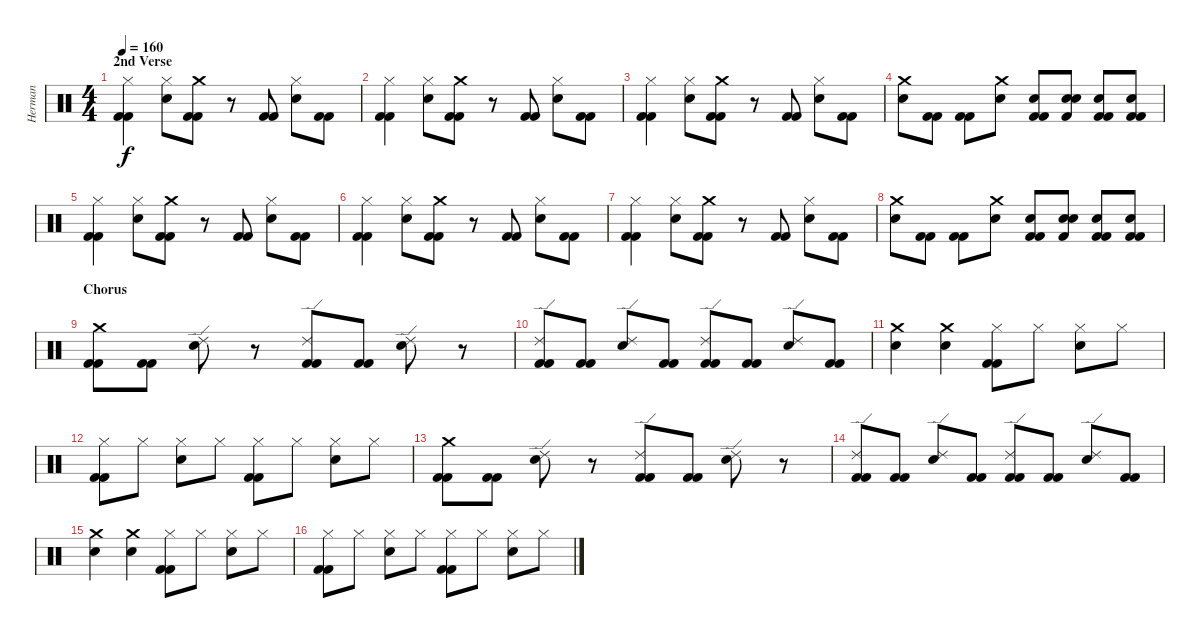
\track ("Herman" "Herman") {instrument percussion}
\staff {score}
\articulation defaults
\ts (4 4)
\section ("" "2nd Verse")
\tempo 160
\clef neutral
\ks c
("Hi-Hat (closed)" "Kick (hit) 2" "Kick (hit) 2").4{dy f} ("Electric Snare (hit)" "Hi-Hat (closed)").8 ("Crash medium (hit)" "Kick (hit) 2" "Kick (hit) 2").8 r.8 ("Kick (hit) 2" "Kick (hit) 2").8 ("Hi-Hat (closed)" "Electric Snare (hit)").8 ("Kick (hit) 2" "Kick (hit) 2").8 |
("Hi-Hat (closed)" "Kick (hit) 2" "Kick (hit) 2").4 ("Electric Snare (hit)" "Hi-Hat (closed)").8 ("Crash medium (hit)" "Kick (hit) 2" "Kick (hit) 2").8 r.8 ("Kick (hit) 2" "Kick (hit) 2").8 ("Hi-Hat (closed)" "Electric Snare (hit)").8 ("Kick (hit) 2" "Kick (hit) 2").8 |
("Hi-Hat (closed)" "Kick (hit) 2" "Kick (hit) 2").4 ("Electric Snare (hit)" "Hi-Hat (closed)").8 ("Crash medium (hit)" "Kick (hit) 2" "Kick (hit) 2").8 r.8 ("Kick (hit) 2" "Kick (hit) 2").8 ("Hi-Hat (closed)" "Electric Snare (hit)").8 ("Kick (hit) 2" "Kick (hit) 2").8 |
("Crash medium (hit)" "Electric Snare (hit)").8 ("Kick (hit) 2" "Kick (hit) 2").8 ("Kick (hit) 2" "Kick (hit) 2").8 ("Crash medium (hit)" "Electric Snare (hit)").8 ("Kick (hit) 2" "Electric Snare (hit)" "Kick (hit) 2").8 ("Electric Snare (hit)" "Electric Snare (hit)" "Kick (hit) 2").8 ("Kick (hit) 2" "Kick (hit) 2" "Electric Snare (hit)").8 ("Electric Snare (hit)" "Kick (hit) 2" "Kick (hit) 2").8 |
("Hi-Hat (closed)" "Kick (hit) 2" "Kick (hit) 2").4 ("Electric Snare (hit)" "Hi-Hat (closed)").8 ("Crash medium (hit)" "Kick (hit) 2" "Kick (hit) 2").8 r.8 ("Kick (hit) 2" "Kick (hit) 2").8 ("Hi-Hat (closed)" "Electric Snare (hit)").8 ("Kick (hit) 2" "Kick (hit) 2").8 |
("Hi-Hat (closed)" "Kick (hit) 2" "Kick (hit) 2").4 ("Electric Snare (hit)" "Hi-Hat (closed)").8 ("Crash medium (hit)" "Kick (hit) 2" "Kick (hit) 2").8 r.8 ("Kick (hit) 2" "Kick (hit) 2").8 ("Hi-Hat (closed)" "Electric Snare (hit)").8 ("Kick (hit) 2" "Kick (hit) 2").8 |
("Hi-Hat (closed)" "Kick (hit) 2" "Kick (hit) 2").4 ("Electric Snare (hit)" "Hi-Hat (closed)").8 ("Crash medium (hit)" "Kick (hit) 2" "Kick (hit) 2").8 r.8 ("Kick (hit) 2" "Kick (hit) 2").8 ("Hi-Hat (closed)" "Electric Snare (hit)").8 ("Kick (hit) 2" "Kick (hit) 2").8 |
("Crash medium (hit)" "Electric Snare (hit)").8 ("Kick (hit) 2" "Kick (hit) 2").8 ("Kick (hit) 2" "Kick (hit) 2").8 ("Crash medium (hit)" "Electric Snare (hit)").8 ("Kick (hit) 2" "Electric Snare (hit)" "Kick (hit) 2").8 ("Electric Snare (hit)" "Electric Snare (hit)" "Kick (hit) 2").8 ("Kick (hit) 2" "Kick (hit) 2" "Electric Snare (hit)").8 ("Electric Snare (hit)" "Kick (hit) 2" "Kick (hit) 2").8 |
\section ("" "Chorus")
("Crash medium (hit)" "Kick (hit) 2" "Kick (hit) 2").8 ("Kick (hit) 2" "Kick (hit) 2").8 ("Electric Snare (hit)" "Ride (edge) 2").8 r.8 ("Ride (edge) 2" "Kick (hit) 2" "Kick (hit) 2").8 ("Kick (hit) 2" "Kick (hit) 2").8 ("Electric Snare (hit)" "Ride (edge) 2").8 r.8 |
("Kick (hit) 2" "Kick (hit) 2" "Ride (edge) 2").8 ("Kick (hit) 2" "Kick (hit) 2").8 ("Electric Snare (hit)" "Ride (edge) 2").8 ("Kick (hit) 2" "Kick (hit) 2").8 ("Kick (hit) 2" "Kick (hit) 2" "Ride (edge) 2").8 ("Kick (hit) 2" "Kick (hit) 2").8 ("Electric Snare (hit)" "Ride (edge) 2").8 ("Kick (hit) 2" "Kick (hit) 2").8 |
("Crash medium (hit)" "Electric Snare (hit)").4 ("Crash medium (hit)" "Electric Snare (hit)").4 ("Hi-Hat (closed)" "Kick (hit) 2" "Kick (hit) 2").8 "Hi-Hat (closed)".8 ("Electric Snare (hit)" "Hi-Hat (closed)").8 "Hi-Hat (closed)".8 |
("Kick (hit) 2" "Kick (hit) 2" "Hi-Hat (closed)").8 "Hi-Hat (closed)".8 ("Hi-Hat (closed)" "Electric Snare (hit)").8 "Hi-Hat (closed)".8 ("Hi-Hat (closed)" "Kick (hit) 2" "Kick (hit) 2").8 "Hi-Hat (closed)".8 ("Electric Snare (hit)" "Hi-Hat (closed)").8 "Hi-Hat (closed)".8 |
("Crash medium (hit)" "Kick (hit) 2" "Kick (hit) 2").8 ("Kick (hit) 2" "Kick (hit) 2").8 ("Electric Snare (hit)" "Ride (edge) 2").8 r.8 ("Ride (edge) 2" "Kick (hit) 2" "Kick (hit) 2").8 ("Kick (hit) 2" "Kick (hit) 2").8 ("Electric Snare (hit)" "Ride (edge) 2").8 r.8 |
("Kick (hit) 2" "Kick (hit) 2" "Ride (edge) 2").8 ("Kick (hit) 2" "Kick (hit) 2").8 ("Electric Snare (hit)" "Ride (edge) 2").8 ("Kick (hit) 2" "Kick (hit) 2").8 ("Kick (hit) 2" "Kick (hit) 2" "Ride (edge) 2").8 ("Kick (hit) 2" "Kick (hit) 2").8 ("Electric Snare (hit)" "Ride (edge) 2").8 ("Kick (hit) 2" "Kick (hit) 2").8 |
("Crash medium (hit)" "Electric Snare (hit)").4 ("Crash medium (hit)" "Electric Snare (hit)").4 ("Hi-Hat (closed)" "Kick (hit) 2" "Kick (hit) 2").8 "Hi-Hat (closed)".8 ("Electric Snare (hit)" "Hi-Hat (closed)").8 "Hi-Hat (closed)".8 |
("Kick (hit) 2" "Kick (hit) 2" "Hi-Hat (closed)").8 "Hi-Hat (closed)".8 ("Hi-Hat (closed)" "Electric Snare (hit)").8 "Hi-Hat (closed)".8 ("Hi-Hat (closed)" "Kick (hit) 2" "Kick (hit) 2").8 "Hi-Hat (closed)".8 ("Electric Snare (hit)" "Hi-Hat (closed)").8 "Hi-Hat (closed)".8
